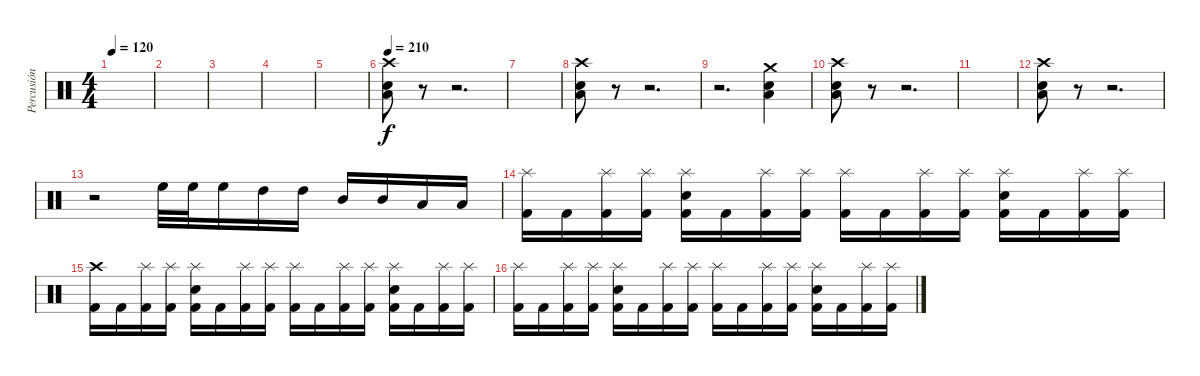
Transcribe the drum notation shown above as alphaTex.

\track ("Percusión" "Percusión") {instrument percussion}
\staff {score}
\articulation defaults
\ts (4 4)
\tempo 120
\clef neutral
\ks c
|
|
|
|
|
\tempo 210
("Crash high (hit)" "Electric Snare (hit)" "Low Tom (hit)").8 r.8 r.2{d} |
|
("Crash high (hit)" "Electric Snare (hit)" "Low Tom (hit)").8 r.8 r.2{d} |
r.2{d} ("Crash medium (hit)" "Electric Snare (hit)" "Low Tom (hit)").4 |
("Crash high (hit)" "Electric Snare (hit)" "Low Tom (hit)").8 r.8 r.2{d} |
|
("Crash high (hit)" "Electric Snare (hit)" "Low Tom (hit)").8 r.8 r.2{d} |
r.2 "High Floor Tom (hit)".32 "High Floor Tom (hit)".32 "High Floor Tom (hit)".16 "High Tom (hit)".16 "High Tom (hit)".16 "Mid Tom (hit)".16 "Mid Tom (hit)".16 "Low Tom (hit)".16 "Low Tom (hit)".16 |
("Splash (hit)" "Kick (hit) 2").16 "Kick (hit) 2".16 ("Splash (hit)" "Kick (hit) 2").16 ("Splash (hit)" "Kick (hit) 2").16 ("Splash (hit)" "Electric Snare (hit)" "Kick (hit) 2").16 "Kick (hit) 2".16 ("Splash (hit)" "Kick (hit) 2").16 ("Splash (hit)" "Kick (hit) 2").16 ("Splash (hit)" "Kick (hit) 2").16 "Kick (hit) 2".16 ("Splash (hit)" "Kick (hit) 2").16 ("Splash (hit)" "Kick (hit) 2").16 ("Splash (hit)" "Electric Snare (hit)" "Kick (hit) 2").16 "Kick (hit) 2".16 ("Splash (hit)" "Kick (hit) 2").16 ("Splash (hit)" "Kick (hit) 2").16 |
("Crash high (hit)" "Kick (hit) 2").16 "Kick (hit) 2".16 ("Splash (hit)" "Kick (hit) 2").16 ("Splash (hit)" "Kick (hit) 2").16 ("Splash (hit)" "Electric Snare (hit)" "Kick (hit) 2").16 "Kick (hit) 2".16 ("Splash (hit)" "Kick (hit) 2").16 ("Splash (hit)" "Kick (hit) 2").16 ("Splash (hit)" "Kick (hit) 2").16 "Kick (hit) 2".16 ("Splash (hit)" "Kick (hit) 2").16 ("Splash (hit)" "Kick (hit) 2").16 ("Splash (hit)" "Electric Snare (hit)" "Kick (hit) 2").16 "Kick (hit) 2".16 ("Splash (hit)" "Kick (hit) 2").16 ("Splash (hit)" "Kick (hit) 2").16 |
("Splash (hit)" "Kick (hit) 2").16 "Kick (hit) 2".16 ("Splash (hit)" "Kick (hit) 2").16 ("Splash (hit)" "Kick (hit) 2").16 ("Splash (hit)" "Electric Snare (hit)" "Kick (hit) 2").16 "Kick (hit) 2".16 ("Splash (hit)" "Kick (hit) 2").16 ("Splash (hit)" "Kick (hit) 2").16 ("Splash (hit)" "Kick (hit) 2").16 "Kick (hit) 2".16 ("Splash (hit)" "Kick (hit) 2").16 ("Splash (hit)" "Kick (hit) 2").16 ("Splash (hit)" "Electric Snare (hit)" "Kick (hit) 2").16 "Kick (hit) 2".16 ("Splash (hit)" "Kick (hit) 2").16 ("Splash (hit)" "Kick (hit) 2").16
